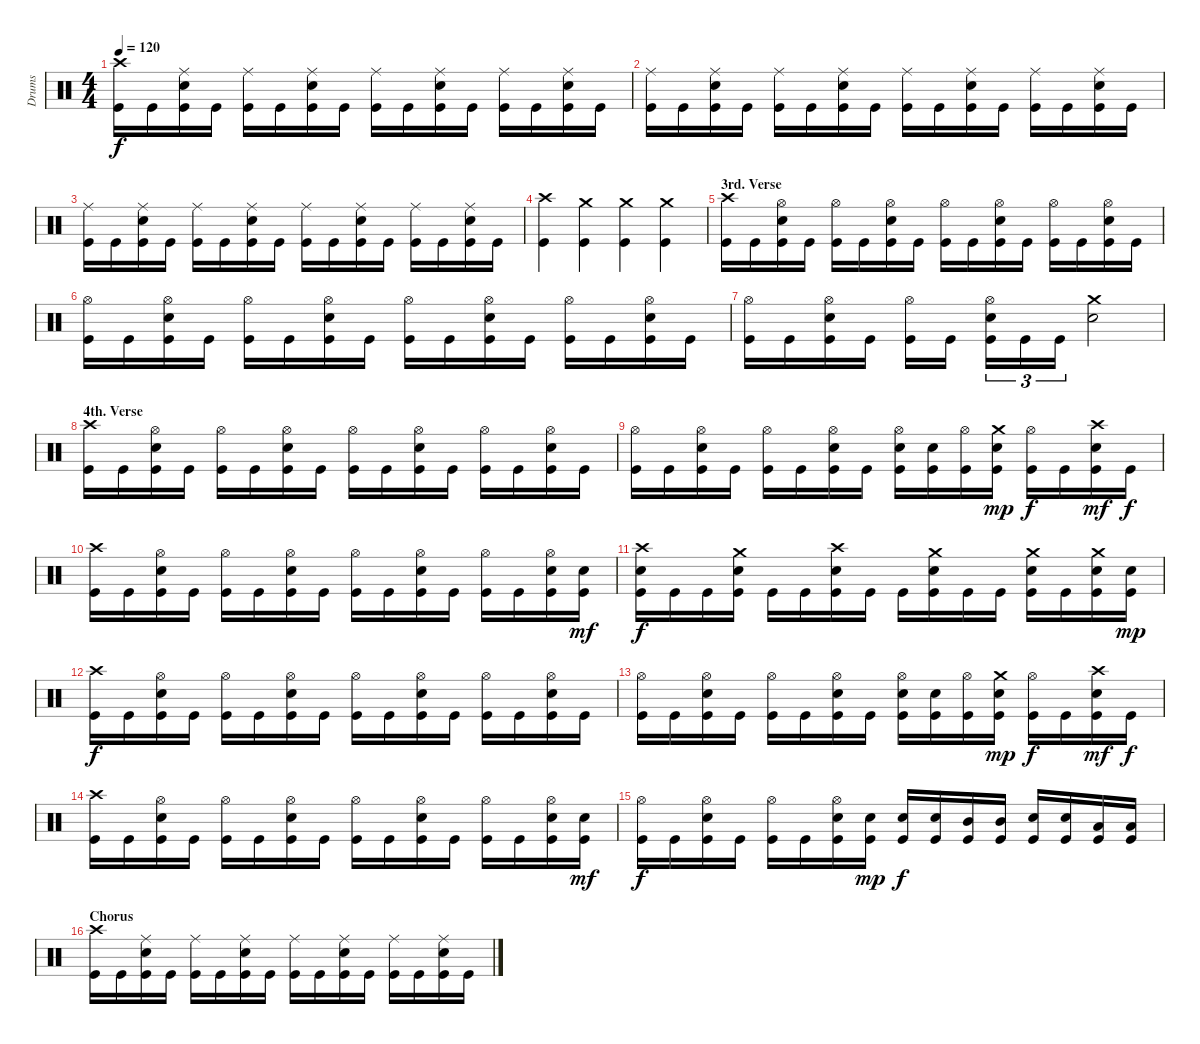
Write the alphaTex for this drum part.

\track ("Drums" "Drums") {instrument percussion}
\staff {score}
\articulation defaults
\ts (4 4)
\tempo 120
\clef neutral
\ks c
("Crash high (hit)" "Kick (hit)").16{dy f} "Kick (hit)".16 ("Ride (middle)" "Electric Snare (hit)" "Kick (hit)").16 "Kick (hit)".16 ("Ride (middle)" "Kick (hit)").16 "Kick (hit)".16 ("Ride (middle)" "Electric Snare (hit)" "Kick (hit)").16 "Kick (hit)".16 ("Ride (middle)" "Kick (hit)").16 "Kick (hit)".16 ("Ride (middle)" "Electric Snare (hit)" "Kick (hit)").16 "Kick (hit)".16 ("Ride (middle)" "Kick (hit)").16 "Kick (hit)".16 ("Ride (middle)" "Electric Snare (hit)" "Kick (hit)").16 "Kick (hit)".16 |
("Ride (middle)" "Kick (hit)").16 "Kick (hit)".16 ("Ride (middle)" "Electric Snare (hit)" "Kick (hit)").16 "Kick (hit)".16 ("Ride (middle)" "Kick (hit)").16 "Kick (hit)".16 ("Ride (middle)" "Electric Snare (hit)" "Kick (hit)").16 "Kick (hit)".16 ("Ride (middle)" "Kick (hit)").16 "Kick (hit)".16 ("Ride (middle)" "Electric Snare (hit)" "Kick (hit)").16 "Kick (hit)".16 ("Ride (middle)" "Kick (hit)").16 "Kick (hit)".16 ("Ride (middle)" "Electric Snare (hit)" "Kick (hit)").16 "Kick (hit)".16 |
("Ride (middle)" "Kick (hit)").16 "Kick (hit)".16 ("Ride (middle)" "Electric Snare (hit)" "Kick (hit)").16 "Kick (hit)".16 ("Ride (middle)" "Kick (hit)").16 "Kick (hit)".16 ("Ride (middle)" "Electric Snare (hit)" "Kick (hit)").16 "Kick (hit)".16 ("Ride (middle)" "Kick (hit)").16 "Kick (hit)".16 ("Ride (middle)" "Electric Snare (hit)" "Kick (hit)").16 "Kick (hit)".16 ("Ride (middle)" "Kick (hit)").16 "Kick (hit)".16 ("Ride (middle)" "Electric Snare (hit)" "Kick (hit)").16 "Kick (hit)".16 |
("Crash high (hit)" "Kick (hit)").4 ("Crash medium (hit)" "Kick (hit)").4 ("Crash medium (hit)" "Kick (hit)").4 ("Crash medium (hit)" "Kick (hit)").4 |
\section ("" "3rd. Verse")
("Crash high (hit)" "Kick (hit)").16 "Kick (hit)".16 ("Hi-Hat (open)" "Electric Snare (hit)" "Kick (hit)").16 "Kick (hit)".16 ("Hi-Hat (open)" "Kick (hit)").16 "Kick (hit)".16 ("Hi-Hat (open)" "Electric Snare (hit)" "Kick (hit)").16 "Kick (hit)".16 ("Hi-Hat (open)" "Kick (hit)").16 "Kick (hit)".16 ("Hi-Hat (open)" "Electric Snare (hit)" "Kick (hit)").16 "Kick (hit)".16 ("Hi-Hat (open)" "Kick (hit)").16 "Kick (hit)".16 ("Hi-Hat (open)" "Electric Snare (hit)" "Kick (hit)").16 "Kick (hit)".16 |
("Hi-Hat (open)" "Kick (hit)").16 "Kick (hit)".16 ("Hi-Hat (open)" "Electric Snare (hit)" "Kick (hit)").16 "Kick (hit)".16 ("Hi-Hat (open)" "Kick (hit)").16 "Kick (hit)".16 ("Hi-Hat (open)" "Electric Snare (hit)" "Kick (hit)").16 "Kick (hit)".16 ("Hi-Hat (open)" "Kick (hit)").16 "Kick (hit)".16 ("Hi-Hat (open)" "Electric Snare (hit)" "Kick (hit)").16 "Kick (hit)".16 ("Hi-Hat (open)" "Kick (hit)").16 "Kick (hit)".16 ("Hi-Hat (open)" "Electric Snare (hit)" "Kick (hit)").16 "Kick (hit)".16 |
("Hi-Hat (open)" "Kick (hit)").16 "Kick (hit)".16 ("Hi-Hat (open)" "Electric Snare (hit)" "Kick (hit)").16 "Kick (hit)".16 ("Hi-Hat (open)" "Kick (hit)").16 "Kick (hit)".16 ("Hi-Hat (open)" "Electric Snare (hit)" "Kick (hit)").16{tu (3 2)} "Kick (hit)".16{tu (3 2)} "Kick (hit)".16{tu (3 2)} ("Crash medium (hit)" "Electric Snare (hit)").2 |
\section ("" "4th. Verse")
("Crash high (hit)" "Kick (hit)").16 "Kick (hit)".16 ("Hi-Hat (open)" "Electric Snare (hit)" "Kick (hit)").16 "Kick (hit)".16 ("Hi-Hat (open)" "Kick (hit)").16 "Kick (hit)".16 ("Hi-Hat (open)" "Electric Snare (hit)" "Kick (hit)").16 "Kick (hit)".16 ("Hi-Hat (open)" "Kick (hit)").16 "Kick (hit)".16 ("Hi-Hat (open)" "Electric Snare (hit)" "Kick (hit)").16 "Kick (hit)".16 ("Hi-Hat (open)" "Kick (hit)").16 "Kick (hit)".16 ("Hi-Hat (open)" "Electric Snare (hit)" "Kick (hit)").16 "Kick (hit)".16 |
("Hi-Hat (open)" "Kick (hit)").16 "Kick (hit)".16 ("Hi-Hat (open)" "Electric Snare (hit)" "Kick (hit)").16 "Kick (hit)".16 ("Hi-Hat (open)" "Kick (hit)").16 "Kick (hit)".16 ("Hi-Hat (open)" "Electric Snare (hit)" "Kick (hit)").16 "Kick (hit)".16 ("Hi-Hat (open)" "Electric Snare (hit)" "Kick (hit)").16 ("Electric Snare (hit)" "Kick (hit)").16 ("Hi-Hat (open)" "Kick (hit)").16 ("Crash medium (hit)" "Electric Snare (hit)" "Kick (hit)").16{dy mp} ("Hi-Hat (open)" "Kick (hit)").16{dy f} "Kick (hit)".16 ("Crash high (hit)" "Electric Snare (hit)" "Kick (hit)").16{dy mf} "Kick (hit)".16{dy f} |
("Crash high (hit)" "Kick (hit)").16 "Kick (hit)".16 ("Hi-Hat (open)" "Electric Snare (hit)" "Kick (hit)").16 "Kick (hit)".16 ("Hi-Hat (open)" "Kick (hit)").16 "Kick (hit)".16 ("Hi-Hat (open)" "Electric Snare (hit)" "Kick (hit)").16 "Kick (hit)".16 ("Hi-Hat (open)" "Kick (hit)").16 "Kick (hit)".16 ("Hi-Hat (open)" "Electric Snare (hit)" "Kick (hit)").16 "Kick (hit)".16 ("Hi-Hat (open)" "Kick (hit)").16 "Kick (hit)".16 ("Hi-Hat (open)" "Electric Snare (hit)" "Kick (hit)").16 ("Electric Snare (hit)" "Kick (hit)").16{dy mf} |
("Crash high (hit)" "Electric Snare (hit)" "Kick (hit)").16{dy f} "Kick (hit)".16 "Kick (hit)".16 ("Crash medium (hit)" "Electric Snare (hit)" "Kick (hit)").16 "Kick (hit)".16 "Kick (hit)".16 ("Crash high (hit)" "Electric Snare (hit)" "Kick (hit)").16 "Kick (hit)".16 "Kick (hit)".16 ("Crash medium (hit)" "Electric Snare (hit)" "Kick (hit)").16 "Kick (hit)".16 "Kick (hit)".16 ("Crash medium (hit)" "Electric Snare (hit)" "Kick (hit)").16 "Kick (hit)".16 ("Crash medium (hit)" "Electric Snare (hit)" "Kick (hit)").16 ("Electric Snare (hit)" "Kick (hit)").16{dy mp} |
("Crash high (hit)" "Kick (hit)").16{dy f} "Kick (hit)".16 ("Hi-Hat (open)" "Electric Snare (hit)" "Kick (hit)").16 "Kick (hit)".16 ("Hi-Hat (open)" "Kick (hit)").16 "Kick (hit)".16 ("Hi-Hat (open)" "Electric Snare (hit)" "Kick (hit)").16 "Kick (hit)".16 ("Hi-Hat (open)" "Kick (hit)").16 "Kick (hit)".16 ("Hi-Hat (open)" "Electric Snare (hit)" "Kick (hit)").16 "Kick (hit)".16 ("Hi-Hat (open)" "Kick (hit)").16 "Kick (hit)".16 ("Hi-Hat (open)" "Electric Snare (hit)" "Kick (hit)").16 "Kick (hit)".16 |
("Hi-Hat (open)" "Kick (hit)").16 "Kick (hit)".16 ("Hi-Hat (open)" "Electric Snare (hit)" "Kick (hit)").16 "Kick (hit)".16 ("Hi-Hat (open)" "Kick (hit)").16 "Kick (hit)".16 ("Hi-Hat (open)" "Electric Snare (hit)" "Kick (hit)").16 "Kick (hit)".16 ("Hi-Hat (open)" "Electric Snare (hit)" "Kick (hit)").16 ("Electric Snare (hit)" "Kick (hit)").16 ("Hi-Hat (open)" "Kick (hit)").16 ("Crash medium (hit)" "Electric Snare (hit)" "Kick (hit)").16{dy mp} ("Hi-Hat (open)" "Kick (hit)").16{dy f} "Kick (hit)".16 ("Crash high (hit)" "Electric Snare (hit)" "Kick (hit)").16{dy mf} "Kick (hit)".16{dy f} |
("Crash high (hit)" "Kick (hit)").16 "Kick (hit)".16 ("Hi-Hat (open)" "Electric Snare (hit)" "Kick (hit)").16 "Kick (hit)".16 ("Hi-Hat (open)" "Kick (hit)").16 "Kick (hit)".16 ("Hi-Hat (open)" "Electric Snare (hit)" "Kick (hit)").16 "Kick (hit)".16 ("Hi-Hat (open)" "Kick (hit)").16 "Kick (hit)".16 ("Hi-Hat (open)" "Electric Snare (hit)" "Kick (hit)").16 "Kick (hit)".16 ("Hi-Hat (open)" "Kick (hit)").16 "Kick (hit)".16 ("Hi-Hat (open)" "Electric Snare (hit)" "Kick (hit)").16 ("Electric Snare (hit)" "Kick (hit)").16{dy mf} |
("Hi-Hat (open)" "Kick (hit)").16{dy f} "Kick (hit)".16 ("Hi-Hat (open)" "Electric Snare (hit)" "Kick (hit)").16 "Kick (hit)".16 ("Hi-Hat (open)" "Kick (hit)").16 "Kick (hit)".16 ("Hi-Hat (open)" "Electric Snare (hit)" "Kick (hit)").16 ("Electric Snare (hit)" "Kick (hit)").16{dy mp} ("Electric Snare (hit)" "Kick (hit)").16{dy f} ("Electric Snare (hit)" "Kick (hit)").16 ("Mid Tom (hit)" "Kick (hit)").16 ("Mid Tom (hit)" "Kick (hit)").16 ("Electric Snare (hit)" "Kick (hit)").16 ("Electric Snare (hit)" "Kick (hit)").16 ("Low Tom (hit)" "Kick (hit)").16 ("Low Tom (hit)" "Kick (hit)").16 |
\section ("" "Chorus")
("Crash high (hit)" "Kick (hit)").16 "Kick (hit)".16 ("Ride (middle)" "Electric Snare (hit)" "Kick (hit)").16 "Kick (hit)".16 ("Ride (middle)" "Kick (hit)").16 "Kick (hit)".16 ("Ride (middle)" "Electric Snare (hit)" "Kick (hit)").16 "Kick (hit)".16 ("Ride (middle)" "Kick (hit)").16 "Kick (hit)".16 ("Ride (middle)" "Electric Snare (hit)" "Kick (hit)").16 "Kick (hit)".16 ("Ride (middle)" "Kick (hit)").16 "Kick (hit)".16 ("Ride (middle)" "Electric Snare (hit)" "Kick (hit)").16 "Kick (hit)".16
